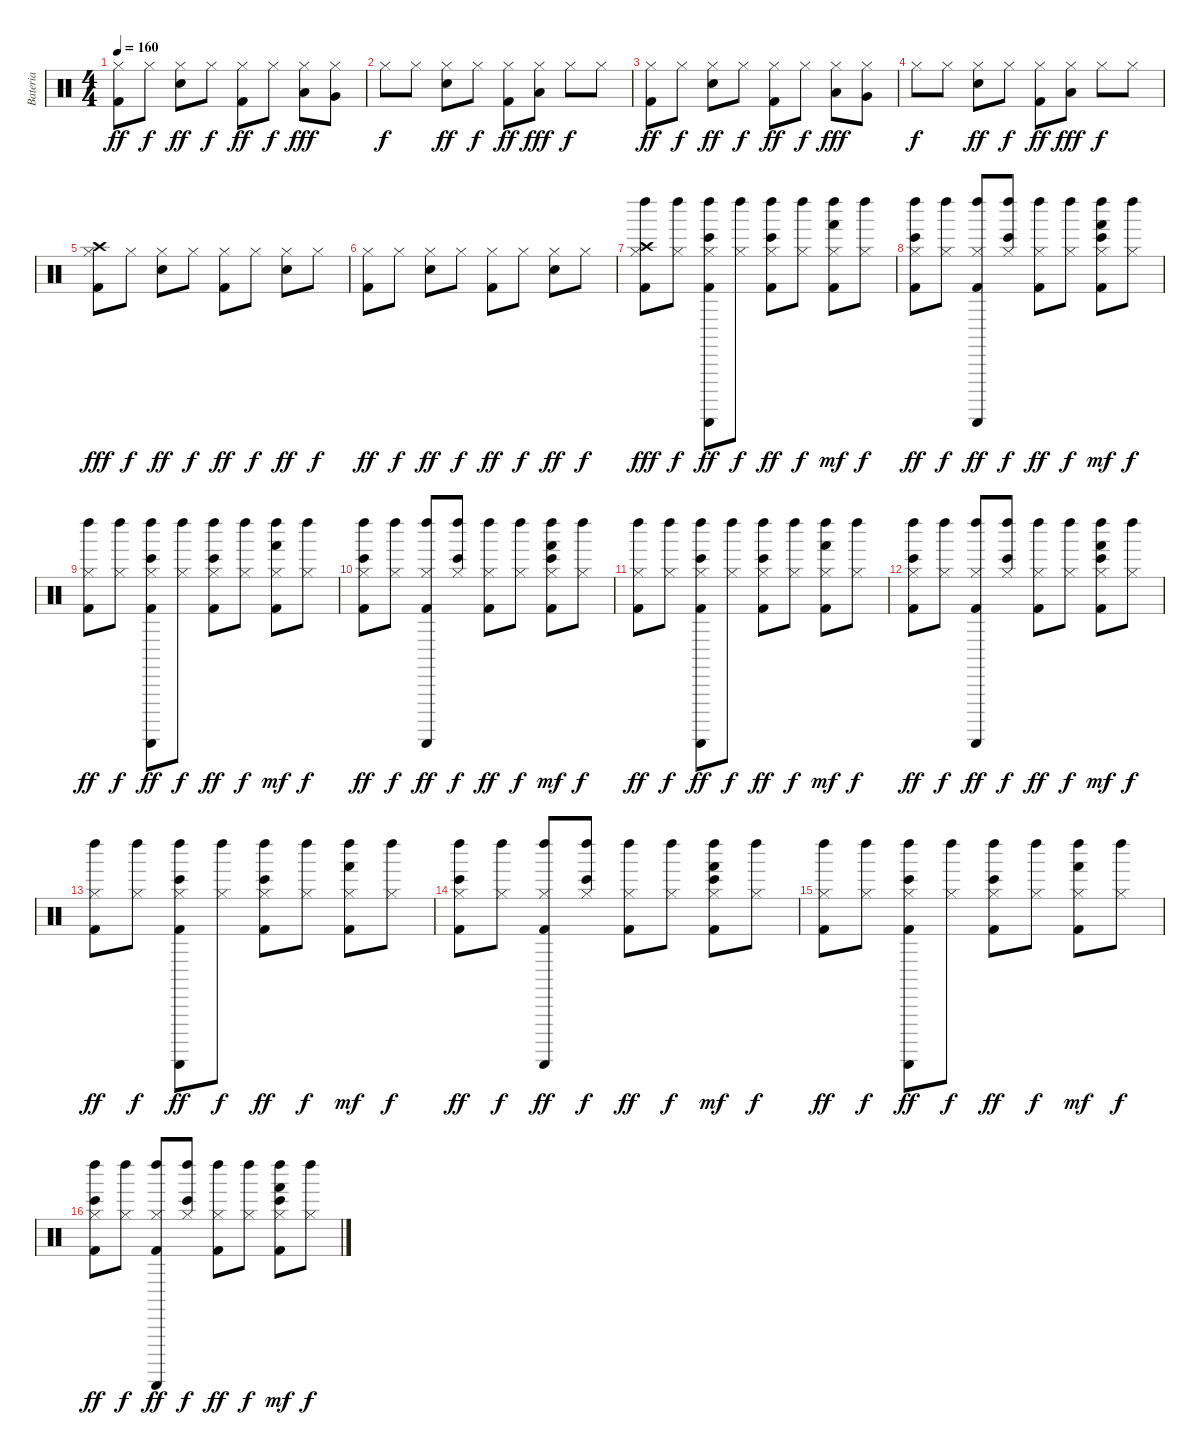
\track ("Bateria" "Bateria") {instrument percussion}
\staff {score}
\articulation defaults
\ts (4 4)
\tempo 160
\clef neutral
\ks c
("Kick (hit) 2" "Hi-Hat (closed)").8{dy ff} "Hi-Hat (closed)".8{dy f} ("Hi-Hat (closed)" "Snare (hit) 2").8{dy ff} "Hi-Hat (closed)".8{dy f} ("Kick (hit) 2" "Hi-Hat (closed)").8{dy ff} "Hi-Hat (closed)".8{dy f} ("Hi-Hat (closed)" "Low Tom (hit)").8{dy fff} ("Very Low Tom (hit)" "Hi-Hat (closed)").8 |
"Hi-Hat (closed)".8{dy f} "Hi-Hat (closed)".8 ("Hi-Hat (closed)" "Snare (hit) 2").8{dy ff} "Hi-Hat (closed)".8{dy f} ("Kick (hit) 2" "Hi-Hat (closed)").8{dy ff} ("Low Tom (hit)" "Hi-Hat (closed)").8{dy fff} "Hi-Hat (closed)".8{dy f} "Hi-Hat (closed)".8 |
("Kick (hit) 2" "Hi-Hat (closed)").8{dy ff} "Hi-Hat (closed)".8{dy f} ("Hi-Hat (closed)" "Snare (hit) 2").8{dy ff} "Hi-Hat (closed)".8{dy f} ("Kick (hit) 2" "Hi-Hat (closed)").8{dy ff} "Hi-Hat (closed)".8{dy f} ("Hi-Hat (closed)" "Low Tom (hit)").8{dy fff} ("Very Low Tom (hit)" "Hi-Hat (closed)").8 |
"Hi-Hat (closed)".8{dy f} "Hi-Hat (closed)".8 ("Hi-Hat (closed)" "Snare (hit) 2").8{dy ff} "Hi-Hat (closed)".8{dy f} ("Kick (hit) 2" "Hi-Hat (closed)").8{dy ff} ("Low Tom (hit)" "Hi-Hat (closed)").8{dy fff} "Hi-Hat (closed)".8{dy f} "Hi-Hat (closed)".8 |
("Kick (hit) 2" "Crash high (hit)" "Hi-Hat (closed)").8{dy fff} "Hi-Hat (closed)".8{dy f} ("Hi-Hat (closed)" "Snare (hit) 2").8{dy ff} "Hi-Hat (closed)".8{dy f} ("Kick (hit) 2" "Hi-Hat (closed)").8{dy ff} "Hi-Hat (closed)".8{dy f} ("Hi-Hat (closed)" "Snare (hit) 2").8{dy ff} "Hi-Hat (closed)".8{dy f} |
("Kick (hit) 2" "Hi-Hat (closed)").8{dy ff} "Hi-Hat (closed)".8{dy f} ("Hi-Hat (closed)" "Snare (hit) 2").8{dy ff} "Hi-Hat (closed)".8{dy f} ("Kick (hit) 2" "Hi-Hat (closed)").8{dy ff} "Hi-Hat (closed)".8{dy f} ("Hi-Hat (closed)" "Snare (hit) 2").8{dy ff} "Hi-Hat (closed)".8{dy f} |
("Left Maraca (hit)" "Kick (hit) 2" "Crash high (hit)" "Hi-Hat (closed)").8{dy fff} ("Left Maraca (hit)" "Hi-Hat (closed)").8{dy f} ("Left Maraca (hit)" "Guiro (scrap-return)" "Hi-Hat (closed)" "Kick (hit) 2" "Bongo High (hit)").8{dy ff} ("Left Maraca (hit)" "Hi-Hat (closed)").8{dy f} ("Left Maraca (hit)" "Hi-Hat (closed)" "Kick (hit) 2" "Bongo High (hit)").8{dy ff} ("Left Maraca (hit)" "Hi-Hat (closed)").8{dy f} ("Left Maraca (hit)" "Hi-Hat (closed)" "Kick (hit) 2" "Hand (hit)").8{dy mf} ("Left Maraca (hit)" "Hi-Hat (closed)").8{dy f} |
("Left Maraca (hit)" "Hi-Hat (closed)" "Kick (hit) 2" "Bongo High (hit)").8{dy ff} ("Left Maraca (hit)" "Hi-Hat (closed)").8{dy f} ("Left Maraca (hit)" "Guiro (scrap-return)" "Kick (hit) 2" "Hi-Hat (closed)").8{dy ff} ("Left Maraca (hit)" "Hi-Hat (closed)" "Bongo High (hit)").8{dy f} ("Left Maraca (hit)" "Kick (hit) 2" "Hi-Hat (closed)").8{dy ff} ("Left Maraca (hit)" "Hi-Hat (closed)").8{dy f} ("Left Maraca (hit)" "Bongo High (hit)" "Hi-Hat (closed)" "Kick (hit) 2" "Hand (hit)").8{dy mf} ("Left Maraca (hit)" "Hi-Hat (closed)").8{dy f} |
("Left Maraca (hit)" "Kick (hit) 2" "Hi-Hat (closed)").8{dy ff} ("Left Maraca (hit)" "Hi-Hat (closed)").8{dy f} ("Left Maraca (hit)" "Guiro (scrap-return)" "Hi-Hat (closed)" "Kick (hit) 2" "Bongo High (hit)").8{dy ff} ("Left Maraca (hit)" "Hi-Hat (closed)").8{dy f} ("Left Maraca (hit)" "Hi-Hat (closed)" "Kick (hit) 2" "Bongo High (hit)").8{dy ff} ("Left Maraca (hit)" "Hi-Hat (closed)").8{dy f} ("Left Maraca (hit)" "Hi-Hat (closed)" "Kick (hit) 2" "Hand (hit)").8{dy mf} ("Left Maraca (hit)" "Hi-Hat (closed)").8{dy f} |
("Left Maraca (hit)" "Hi-Hat (closed)" "Kick (hit) 2" "Bongo High (hit)").8{dy ff} ("Left Maraca (hit)" "Hi-Hat (closed)").8{dy f} ("Left Maraca (hit)" "Guiro (scrap-return)" "Kick (hit) 2" "Hi-Hat (closed)").8{dy ff} ("Left Maraca (hit)" "Hi-Hat (closed)" "Bongo High (hit)").8{dy f} ("Left Maraca (hit)" "Kick (hit) 2" "Hi-Hat (closed)").8{dy ff} ("Left Maraca (hit)" "Hi-Hat (closed)").8{dy f} ("Left Maraca (hit)" "Bongo High (hit)" "Hi-Hat (closed)" "Kick (hit) 2" "Hand (hit)").8{dy mf} ("Left Maraca (hit)" "Hi-Hat (closed)").8{dy f} |
("Left Maraca (hit)" "Kick (hit) 2" "Hi-Hat (closed)").8{dy ff} ("Left Maraca (hit)" "Hi-Hat (closed)").8{dy f} ("Left Maraca (hit)" "Guiro (scrap-return)" "Hi-Hat (closed)" "Kick (hit) 2" "Bongo High (hit)").8{dy ff} ("Left Maraca (hit)" "Hi-Hat (closed)").8{dy f} ("Left Maraca (hit)" "Hi-Hat (closed)" "Kick (hit) 2" "Bongo High (hit)").8{dy ff} ("Left Maraca (hit)" "Hi-Hat (closed)").8{dy f} ("Left Maraca (hit)" "Hi-Hat (closed)" "Kick (hit) 2" "Hand (hit)").8{dy mf} ("Left Maraca (hit)" "Hi-Hat (closed)").8{dy f} |
("Left Maraca (hit)" "Hi-Hat (closed)" "Kick (hit) 2" "Bongo High (hit)").8{dy ff} ("Left Maraca (hit)" "Hi-Hat (closed)").8{dy f} ("Left Maraca (hit)" "Guiro (scrap-return)" "Kick (hit) 2" "Hi-Hat (closed)").8{dy ff} ("Left Maraca (hit)" "Hi-Hat (closed)" "Bongo High (hit)").8{dy f} ("Left Maraca (hit)" "Kick (hit) 2" "Hi-Hat (closed)").8{dy ff} ("Left Maraca (hit)" "Hi-Hat (closed)").8{dy f} ("Left Maraca (hit)" "Bongo High (hit)" "Hi-Hat (closed)" "Kick (hit) 2" "Hand (hit)").8{dy mf} ("Left Maraca (hit)" "Hi-Hat (closed)").8{dy f} |
("Left Maraca (hit)" "Kick (hit) 2" "Hi-Hat (closed)").8{dy ff} ("Left Maraca (hit)" "Hi-Hat (closed)").8{dy f} ("Left Maraca (hit)" "Guiro (scrap-return)" "Hi-Hat (closed)" "Kick (hit) 2" "Bongo High (hit)").8{dy ff} ("Left Maraca (hit)" "Hi-Hat (closed)").8{dy f} ("Left Maraca (hit)" "Hi-Hat (closed)" "Kick (hit) 2" "Bongo High (hit)").8{dy ff} ("Left Maraca (hit)" "Hi-Hat (closed)").8{dy f} ("Left Maraca (hit)" "Hi-Hat (closed)" "Kick (hit) 2" "Hand (hit)").8{dy mf} ("Left Maraca (hit)" "Hi-Hat (closed)").8{dy f} |
("Left Maraca (hit)" "Hi-Hat (closed)" "Kick (hit) 2" "Bongo High (hit)").8{dy ff} ("Left Maraca (hit)" "Hi-Hat (closed)").8{dy f} ("Left Maraca (hit)" "Guiro (scrap-return)" "Kick (hit) 2" "Hi-Hat (closed)").8{dy ff} ("Left Maraca (hit)" "Hi-Hat (closed)" "Bongo High (hit)").8{dy f} ("Left Maraca (hit)" "Kick (hit) 2" "Hi-Hat (closed)").8{dy ff} ("Left Maraca (hit)" "Hi-Hat (closed)").8{dy f} ("Left Maraca (hit)" "Bongo High (hit)" "Hi-Hat (closed)" "Kick (hit) 2" "Hand (hit)").8{dy mf} ("Left Maraca (hit)" "Hi-Hat (closed)").8{dy f} |
("Left Maraca (hit)" "Kick (hit) 2" "Hi-Hat (closed)").8{dy ff} ("Left Maraca (hit)" "Hi-Hat (closed)").8{dy f} ("Left Maraca (hit)" "Guiro (scrap-return)" "Hi-Hat (closed)" "Kick (hit) 2" "Bongo High (hit)").8{dy ff} ("Left Maraca (hit)" "Hi-Hat (closed)").8{dy f} ("Left Maraca (hit)" "Hi-Hat (closed)" "Kick (hit) 2" "Bongo High (hit)").8{dy ff} ("Left Maraca (hit)" "Hi-Hat (closed)").8{dy f} ("Left Maraca (hit)" "Hi-Hat (closed)" "Kick (hit) 2" "Hand (hit)").8{dy mf} ("Left Maraca (hit)" "Hi-Hat (closed)").8{dy f} |
("Left Maraca (hit)" "Hi-Hat (closed)" "Kick (hit) 2" "Bongo High (hit)").8{dy ff} ("Left Maraca (hit)" "Hi-Hat (closed)").8{dy f} ("Left Maraca (hit)" "Guiro (scrap-return)" "Kick (hit) 2" "Hi-Hat (closed)").8{dy ff} ("Left Maraca (hit)" "Hi-Hat (closed)" "Bongo High (hit)").8{dy f} ("Left Maraca (hit)" "Kick (hit) 2" "Hi-Hat (closed)").8{dy ff} ("Left Maraca (hit)" "Hi-Hat (closed)").8{dy f} ("Left Maraca (hit)" "Bongo High (hit)" "Hi-Hat (closed)" "Kick (hit) 2" "Hand (hit)").8{dy mf} ("Left Maraca (hit)" "Hi-Hat (closed)").8{dy f}
